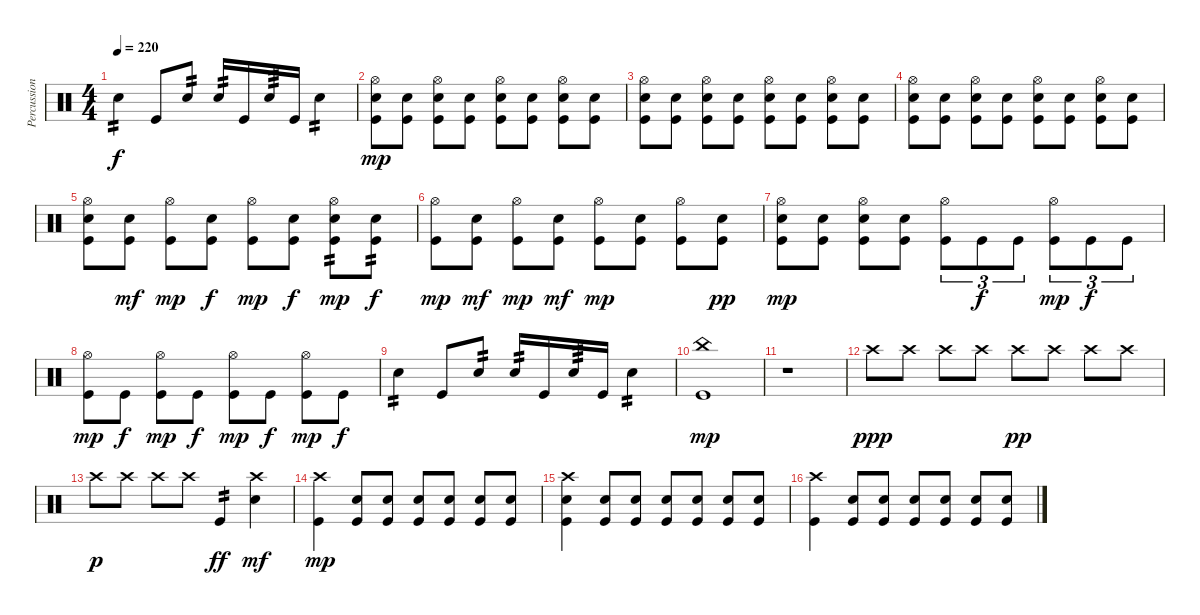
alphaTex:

\track ("Percussion" "Percussion") {instrument percussion}
\staff {score}
\articulation defaults
\ts (4 4)
\tempo 220
\clef neutral
\ks c "Electric Snare (hit)".4{tp 2 dy f} "Kick (hit)".8 "Electric Snare (hit)".8{tp 2} "Electric Snare (hit)".16{tp 2} "Kick (hit)".16 "Electric Snare (hit)".16{tp 3} "Kick (hit)".16 "Electric Snare (hit)".4{tp 2}
|
("Hi-Hat (open)" "Electric Snare (hit)" "Kick (hit)").8{dy mp} ("Electric Snare (hit)" "Kick (hit)").8 ("Hi-Hat (open)" "Electric Snare (hit)" "Kick (hit)").8 ("Electric Snare (hit)" "Kick (hit)").8 ("Hi-Hat (open)" "Electric Snare (hit)" "Kick (hit)").8 ("Electric Snare (hit)" "Kick (hit)").8 ("Hi-Hat (open)" "Electric Snare (hit)" "Kick (hit)").8 ("Electric Snare (hit)" "Kick (hit)").8 |
("Hi-Hat (open)" "Electric Snare (hit)" "Kick (hit)").8 ("Electric Snare (hit)" "Kick (hit)").8 ("Hi-Hat (open)" "Electric Snare (hit)" "Kick (hit)").8 ("Electric Snare (hit)" "Kick (hit)").8 ("Hi-Hat (open)" "Electric Snare (hit)" "Kick (hit)").8 ("Electric Snare (hit)" "Kick (hit)").8 ("Hi-Hat (open)" "Electric Snare (hit)" "Kick (hit)").8 ("Electric Snare (hit)" "Kick (hit)").8 |
("Hi-Hat (open)" "Electric Snare (hit)" "Kick (hit)").8 ("Electric Snare (hit)" "Kick (hit)").8 ("Hi-Hat (open)" "Electric Snare (hit)" "Kick (hit)").8 ("Electric Snare (hit)" "Kick (hit)").8 ("Hi-Hat (open)" "Electric Snare (hit)" "Kick (hit)").8 ("Electric Snare (hit)" "Kick (hit)").8 ("Hi-Hat (open)" "Electric Snare (hit)" "Kick (hit)").8 ("Electric Snare (hit)" "Kick (hit)").8 |
("Hi-Hat (open)" "Electric Snare (hit)" "Kick (hit)").8 ("Electric Snare (hit)" "Kick (hit)").8{dy mf} ("Hi-Hat (open)" "Kick (hit)").8{dy mp} ("Electric Snare (hit)" "Kick (hit)").8{dy f} ("Hi-Hat (open)" "Kick (hit)").8{dy mp} ("Electric Snare (hit)" "Kick (hit)").8{dy f} ("Hi-Hat (open)" "Electric Snare (hit)" "Kick (hit)").8{tp 2 dy mp} ("Electric Snare (hit)" "Kick (hit)").8{tp 2 dy f} |
("Hi-Hat (open)" "Kick (hit)").8{dy mp} ("Electric Snare (hit)" "Kick (hit)").8{dy mf} ("Hi-Hat (open)" "Kick (hit)").8{dy mp} ("Electric Snare (hit)" "Kick (hit)").8{dy mf} ("Hi-Hat (open)" "Kick (hit)").8{dy mp} ("Electric Snare (hit)" "Kick (hit)").8 ("Hi-Hat (open)" "Kick (hit)").8 ("Electric Snare (hit)" "Kick (hit)").8{dy pp} |
("Hi-Hat (open)" "Electric Snare (hit)" "Kick (hit)").8{dy mp} ("Electric Snare (hit)" "Kick (hit)").8 ("Hi-Hat (open)" "Electric Snare (hit)" "Kick (hit)").8 ("Electric Snare (hit)" "Kick (hit)").8 ("Hi-Hat (open)" "Kick (hit)").8{tu (3 2)} "Kick (hit)".8{tu (3 2) dy f} "Kick (hit)".8{tu (3 2)} ("Hi-Hat (open)" "Kick (hit)").8{tu (3 2) dy mp} "Kick (hit)".8{tu (3 2) dy f} "Kick (hit)".8{tu (3 2)} |
("Hi-Hat (open)" "Kick (hit)").8{dy mp} "Kick (hit)".8{dy f} ("Hi-Hat (open)" "Kick (hit)").8{dy mp} "Kick (hit)".8{dy f} ("Hi-Hat (open)" "Kick (hit)").8{dy mp} "Kick (hit)".8{dy f} ("Hi-Hat (open)" "Kick (hit)").8{dy mp} "Kick (hit)".8{dy f} |
"Electric Snare (hit)".4{tp 2} "Kick (hit)".8 "Electric Snare (hit)".8{tp 2} "Electric Snare (hit)".16{tp 2} "Kick (hit)".16 "Electric Snare (hit)".16{tp 3} "Kick (hit)".16 "Electric Snare (hit)".4{tp 2} |
("China (hit)" "Kick (hit)").1{dy mp} |
r.1 |
"Crash high (hit)".8{dy ppp} "Crash high (hit)".8 "Crash high (hit)".8 "Crash high (hit)".8 "Crash high (hit)".8{dy pp} "Crash high (hit)".8 "Crash high (hit)".8 "Crash high (hit)".8 |
"Crash high (hit)".8{dy p} "Crash high (hit)".8 "Crash high (hit)".8 "Crash high (hit)".8 "Kick (hit)".4{tp 2 dy ff} ("Crash high (hit)" "Electric Snare (hit)").4{dy mf} |
("Crash high (hit)" "Kick (hit)").4{dy mp} ("Electric Snare (hit)" "Kick (hit)").8 ("Electric Snare (hit)" "Kick (hit)").8 ("Electric Snare (hit)" "Kick (hit)").8 ("Electric Snare (hit)" "Kick (hit)").8 ("Electric Snare (hit)" "Kick (hit)").8 ("Electric Snare (hit)" "Kick (hit)").8 |
("Crash high (hit)" "Electric Snare (hit)" "Kick (hit)").4 ("Electric Snare (hit)" "Kick (hit)").8 ("Electric Snare (hit)" "Kick (hit)").8 ("Electric Snare (hit)" "Kick (hit)").8 ("Electric Snare (hit)" "Kick (hit)").8 ("Electric Snare (hit)" "Kick (hit)").8 ("Electric Snare (hit)" "Kick (hit)").8 |
("Crash high (hit)" "Kick (hit)").4 ("Electric Snare (hit)" "Kick (hit)").8 ("Electric Snare (hit)" "Kick (hit)").8 ("Electric Snare (hit)" "Kick (hit)").8 ("Electric Snare (hit)" "Kick (hit)").8 ("Electric Snare (hit)" "Kick (hit)").8 ("Electric Snare (hit)" "Kick (hit)").8
